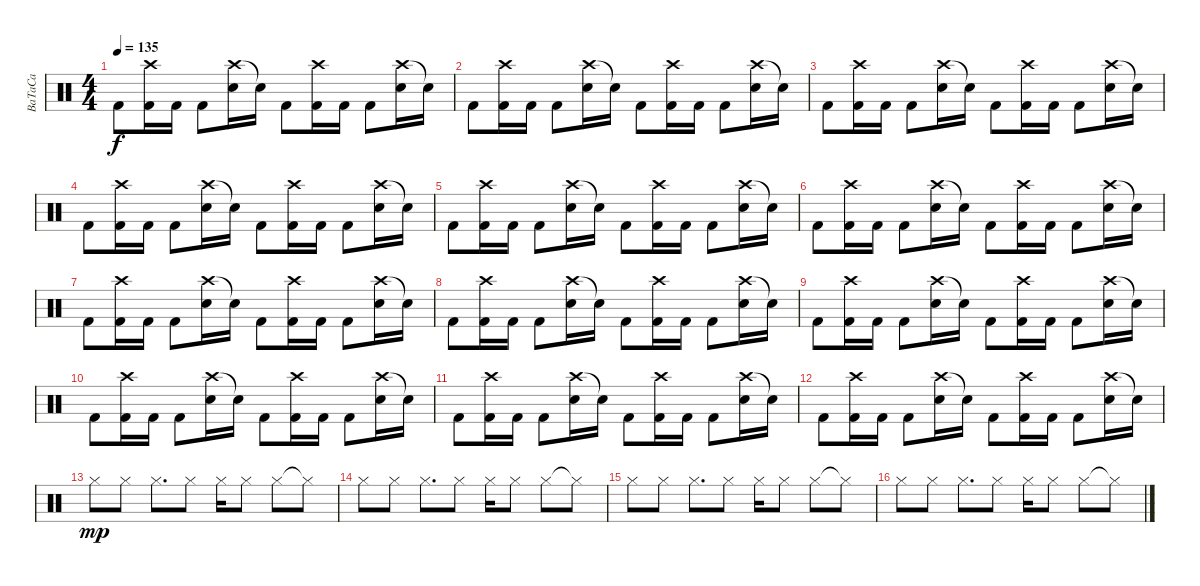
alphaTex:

\track ("BaTaCa" "BaTaCa") {instrument percussion}
\staff {score}
\articulation defaults
\ts (4 4)
\tempo 135
\clef neutral
\ks c "Kick (hit) 2".8{dy f}
("Crash high (hit)" "Kick (hit) 2").16 "Kick (hit) 2".16 "Kick (hit) 2".8 ("Crash high (hit)" "Electric Snare (hit)").16 "Electric Snare (hit)"{t}.16 "Kick (hit) 2".8 ("Crash high (hit)" "Kick (hit) 2").16 "Kick (hit) 2".16 "Kick (hit) 2".8 ("Crash high (hit)" "Electric Snare (hit)").16 "Electric Snare (hit)"{t}.16 |
"Kick (hit) 2".8 ("Crash high (hit)" "Kick (hit) 2").16 "Kick (hit) 2".16 "Kick (hit) 2".8 ("Crash high (hit)" "Electric Snare (hit)").16 "Electric Snare (hit)"{t}.16 "Kick (hit) 2".8 ("Crash high (hit)" "Kick (hit) 2").16 "Kick (hit) 2".16 "Kick (hit) 2".8 ("Crash high (hit)" "Electric Snare (hit)").16 "Electric Snare (hit)"{t}.16 |
"Kick (hit) 2".8 ("Crash high (hit)" "Kick (hit) 2").16 "Kick (hit) 2".16 "Kick (hit) 2".8 ("Crash high (hit)" "Electric Snare (hit)").16 "Electric Snare (hit)"{t}.16 "Kick (hit) 2".8 ("Crash high (hit)" "Kick (hit) 2").16 "Kick (hit) 2".16 "Kick (hit) 2".8 ("Crash high (hit)" "Electric Snare (hit)").16 "Electric Snare (hit)"{t}.16 |
"Kick (hit) 2".8 ("Crash high (hit)" "Kick (hit) 2").16 "Kick (hit) 2".16 "Kick (hit) 2".8 ("Crash high (hit)" "Electric Snare (hit)").16 "Electric Snare (hit)"{t}.16 "Kick (hit) 2".8 ("Crash high (hit)" "Kick (hit) 2").16 "Kick (hit) 2".16 "Kick (hit) 2".8 ("Crash high (hit)" "Electric Snare (hit)").16 "Electric Snare (hit)"{t}.16 |
"Kick (hit) 2".8 ("Crash high (hit)" "Kick (hit) 2").16 "Kick (hit) 2".16 "Kick (hit) 2".8 ("Crash high (hit)" "Electric Snare (hit)").16 "Electric Snare (hit)"{t}.16 "Kick (hit) 2".8 ("Crash high (hit)" "Kick (hit) 2").16 "Kick (hit) 2".16 "Kick (hit) 2".8 ("Crash high (hit)" "Electric Snare (hit)").16 "Electric Snare (hit)"{t}.16 |
"Kick (hit) 2".8 ("Crash high (hit)" "Kick (hit) 2").16 "Kick (hit) 2".16 "Kick (hit) 2".8 ("Crash high (hit)" "Electric Snare (hit)").16 "Electric Snare (hit)"{t}.16 "Kick (hit) 2".8 ("Crash high (hit)" "Kick (hit) 2").16 "Kick (hit) 2".16 "Kick (hit) 2".8 ("Crash high (hit)" "Electric Snare (hit)").16 "Electric Snare (hit)"{t}.16 |
"Kick (hit) 2".8 ("Crash high (hit)" "Kick (hit) 2").16 "Kick (hit) 2".16 "Kick (hit) 2".8 ("Crash high (hit)" "Electric Snare (hit)").16 "Electric Snare (hit)"{t}.16 "Kick (hit) 2".8 ("Crash high (hit)" "Kick (hit) 2").16 "Kick (hit) 2".16 "Kick (hit) 2".8 ("Crash high (hit)" "Electric Snare (hit)").16 "Electric Snare (hit)"{t}.16 |
"Kick (hit) 2".8 ("Crash high (hit)" "Kick (hit) 2").16 "Kick (hit) 2".16 "Kick (hit) 2".8 ("Crash high (hit)" "Electric Snare (hit)").16 "Electric Snare (hit)"{t}.16 "Kick (hit) 2".8 ("Crash high (hit)" "Kick (hit) 2").16 "Kick (hit) 2".16 "Kick (hit) 2".8 ("Crash high (hit)" "Electric Snare (hit)").16 "Electric Snare (hit)"{t}.16 |
"Kick (hit) 2".8 ("Crash high (hit)" "Kick (hit) 2").16 "Kick (hit) 2".16 "Kick (hit) 2".8 ("Crash high (hit)" "Electric Snare (hit)").16 "Electric Snare (hit)"{t}.16 "Kick (hit) 2".8 ("Crash high (hit)" "Kick (hit) 2").16 "Kick (hit) 2".16 "Kick (hit) 2".8 ("Crash high (hit)" "Electric Snare (hit)").16 "Electric Snare (hit)"{t}.16 |
"Kick (hit) 2".8 ("Crash high (hit)" "Kick (hit) 2").16 "Kick (hit) 2".16 "Kick (hit) 2".8 ("Crash high (hit)" "Electric Snare (hit)").16 "Electric Snare (hit)"{t}.16 "Kick (hit) 2".8 ("Crash high (hit)" "Kick (hit) 2").16 "Kick (hit) 2".16 "Kick (hit) 2".8 ("Crash high (hit)" "Electric Snare (hit)").16 "Electric Snare (hit)"{t}.16 |
"Kick (hit) 2".8 ("Crash high (hit)" "Kick (hit) 2").16 "Kick (hit) 2".16 "Kick (hit) 2".8 ("Crash high (hit)" "Electric Snare (hit)").16 "Electric Snare (hit)"{t}.16 "Kick (hit) 2".8 ("Crash high (hit)" "Kick (hit) 2").16 "Kick (hit) 2".16 "Kick (hit) 2".8 ("Crash high (hit)" "Electric Snare (hit)").16 "Electric Snare (hit)"{t}.16 |
"Kick (hit) 2".8 ("Crash high (hit)" "Kick (hit) 2").16 "Kick (hit) 2".16 "Kick (hit) 2".8 ("Crash high (hit)" "Electric Snare (hit)").16 "Electric Snare (hit)"{t}.16 "Kick (hit) 2".8 ("Crash high (hit)" "Kick (hit) 2").16 "Kick (hit) 2".16 "Kick (hit) 2".8 ("Crash high (hit)" "Electric Snare (hit)").16 "Electric Snare (hit)"{t}.16 |
"Hi-Hat (closed)".8{dy mp} "Hi-Hat (closed)".8 "Hi-Hat (closed)".8{d} "Hi-Hat (closed)".8 "Hi-Hat (closed)".16 "Hi-Hat (closed)".8 "Hi-Hat (closed)".8 "Hi-Hat (closed)"{t}.8 |
"Hi-Hat (closed)".8 "Hi-Hat (closed)".8 "Hi-Hat (closed)".8{d} "Hi-Hat (closed)".8 "Hi-Hat (closed)".16 "Hi-Hat (closed)".8 "Hi-Hat (closed)".8 "Hi-Hat (closed)"{t}.8 |
"Hi-Hat (closed)".8 "Hi-Hat (closed)".8 "Hi-Hat (closed)".8{d} "Hi-Hat (closed)".8 "Hi-Hat (closed)".16 "Hi-Hat (closed)".8 "Hi-Hat (closed)".8 "Hi-Hat (closed)"{t}.8 |
"Hi-Hat (closed)".8 "Hi-Hat (closed)".8 "Hi-Hat (closed)".8{d} "Hi-Hat (closed)".8 "Hi-Hat (closed)".16 "Hi-Hat (closed)".8 "Hi-Hat (closed)".8 "Hi-Hat (closed)"{t}.8
